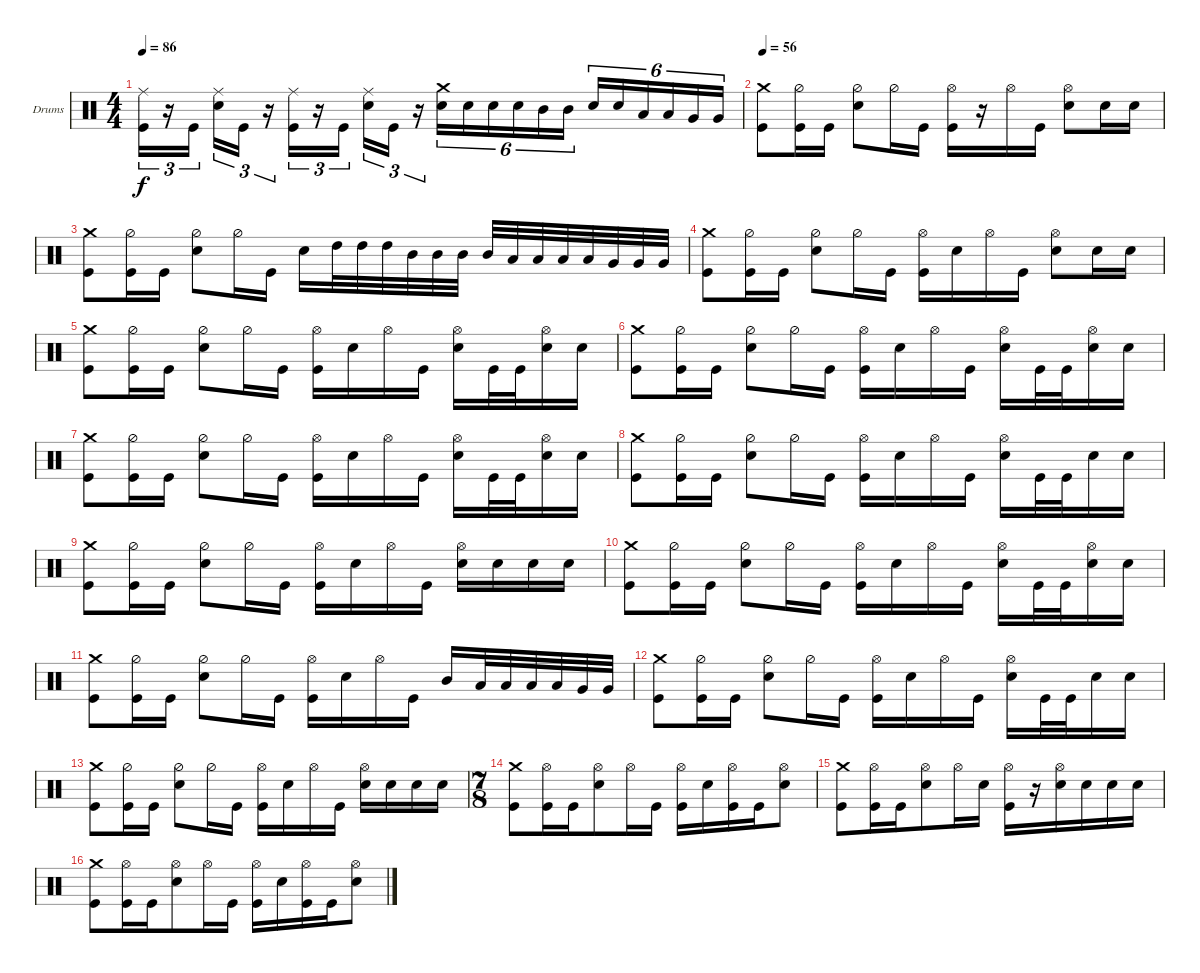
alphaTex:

\bracketExtendMode groupsimilarinstruments
\firstSystemTrackNameOrientation horizontal
\otherSystemsTrackNameOrientation horizontal
\track ("Drumkit" "Drums") {instrument percussion}
\staff {score}
\articulation defaults
\ts (4 4)
\tempo 86
\clef neutral
\ks c
("Kick (hit)" "Ride (middle)").16{tu (3 2) dy f} r.16{tu (3 2)} "Kick (hit)".16{tu (3 2)} ("Snare (hit) 2" "Ride (middle)").16{tu (3 2)} "Kick (hit)".16{tu (3 2)} r.16{tu (3 2)} ("Kick (hit)" "Ride (middle)").16{tu (3 2)} r.16{tu (3 2)} "Kick (hit)".16{tu (3 2)} ("Snare (hit) 2" "Ride (middle)").16{tu (3 2)} "Kick (hit)".16{tu (3 2)} r.16{tu (3 2)} ("Snare (hit) 2" "Crash medium (hit)").16{tu (6 4)} "Snare (hit) 2".16{tu (6 4)} "Snare (hit) 2".16{tu (6 4)} "Snare (hit) 2".16{tu (6 4)} "Mid Tom (hit)".16{tu (6 4)} "Mid Tom (hit)".16{tu (6 4)} "Snare (hit) 2".16{tu (6 4)} "Snare (hit) 2".16{tu (6 4)} "Low Tom (hit)".16{tu (6 4)} "Low Tom (hit)".16{tu (6 4)} "Very Low Tom (hit)".16{tu (6 4)} "Very Low Tom (hit)".16{tu (6 4)} |
\tempo 56
("Crash medium (hit)" "Kick (hit)").8 ("Kick (hit)" "Hi-Hat (half)").16 "Kick (hit)".16 ("Snare (hit) 2" "Hi-Hat (half)").8 "Hi-Hat (half)".16 "Kick (hit)".16 ("Kick (hit)" "Hi-Hat (open)").16 r.16 "Hi-Hat (open)".16 "Kick (hit)".16 ("Snare (hit) 2" "Hi-Hat (open)").8 "Snare (hit) 2".16 "Snare (hit) 2".16 |
("Crash medium (hit)" "Kick (hit)").8 ("Kick (hit)" "Hi-Hat (half)").16 "Kick (hit)".16 ("Snare (hit) 2" "Hi-Hat (half)").8 "Hi-Hat (half)".16 "Kick (hit)".16 "Snare (hit) 2".16 "High Tom (hit)".32 "High Tom (hit)".32 "High Tom (hit)".32 "Mid Tom (hit)".32 "Mid Tom (hit)".32 "Mid Tom (hit)".32 "Mid Tom (hit)".32 "Low Tom (hit)".32 "Low Tom (hit)".32 "Low Tom (hit)".32 "Low Tom (hit)".32 "Very Low Tom (hit)".32 "Very Low Tom (hit)".32 "Very Low Tom (hit)".32 |
("Crash medium (hit)" "Kick (hit)").8 ("Kick (hit)" "Hi-Hat (half)").16 "Kick (hit)".16 ("Snare (hit) 2" "Hi-Hat (half)").8 "Hi-Hat (half)".16 "Kick (hit)".16 ("Kick (hit)" "Hi-Hat (open)").16 "Snare (hit) 2".16 "Hi-Hat (open)".16 "Kick (hit)".16 ("Snare (hit) 2" "Hi-Hat (open)").8 "Snare (hit) 2".16 "Snare (hit) 2".16 |
("Crash medium (hit)" "Kick (hit)").8 ("Kick (hit)" "Hi-Hat (half)").16 "Kick (hit)".16 ("Snare (hit) 2" "Hi-Hat (half)").8 "Hi-Hat (half)".16 "Kick (hit)".16 ("Kick (hit)" "Hi-Hat (open)").16 "Snare (hit) 2".16 "Hi-Hat (open)".16 "Kick (hit)".16 ("Snare (hit) 2" "Hi-Hat (open)").16 "Kick (hit)".32 "Kick (hit)".32 ("Snare (hit) 2" "Hi-Hat (open)").16 "Snare (hit) 2".16 |
("Crash medium (hit)" "Kick (hit)").8 ("Kick (hit)" "Hi-Hat (half)").16 "Kick (hit)".16 ("Snare (hit) 2" "Hi-Hat (half)").8 "Hi-Hat (half)".16 "Kick (hit)".16 ("Kick (hit)" "Hi-Hat (open)").16 "Snare (hit) 2".16 "Hi-Hat (open)".16 "Kick (hit)".16 ("Snare (hit) 2" "Hi-Hat (open)").16 "Kick (hit)".32 "Kick (hit)".32 ("Snare (hit) 2" "Hi-Hat (open)").16 "Snare (hit) 2".16 |
("Crash medium (hit)" "Kick (hit)").8 ("Kick (hit)" "Hi-Hat (half)").16 "Kick (hit)".16 ("Snare (hit) 2" "Hi-Hat (half)").8 "Hi-Hat (half)".16 "Kick (hit)".16 ("Kick (hit)" "Hi-Hat (open)").16 "Snare (hit) 2".16 "Hi-Hat (open)".16 "Kick (hit)".16 ("Snare (hit) 2" "Hi-Hat (open)").16 "Kick (hit)".32 "Kick (hit)".32 ("Snare (hit) 2" "Hi-Hat (open)").16 "Snare (hit) 2".16 |
("Crash medium (hit)" "Kick (hit)").8 ("Kick (hit)" "Hi-Hat (half)").16 "Kick (hit)".16 ("Snare (hit) 2" "Hi-Hat (half)").8 "Hi-Hat (half)".16 "Kick (hit)".16 ("Kick (hit)" "Hi-Hat (open)").16 "Snare (hit) 2".16 "Hi-Hat (open)".16 "Kick (hit)".16 ("Snare (hit) 2" "Hi-Hat (open)").16 "Kick (hit)".32 "Kick (hit)".32 "Snare (hit) 2".16 "Snare (hit) 2".16 |
("Crash medium (hit)" "Kick (hit)").8 ("Kick (hit)" "Hi-Hat (half)").16 "Kick (hit)".16 ("Snare (hit) 2" "Hi-Hat (half)").8 "Hi-Hat (half)".16 "Kick (hit)".16 ("Kick (hit)" "Hi-Hat (open)").16 "Snare (hit) 2".16 "Hi-Hat (open)".16 "Kick (hit)".16 ("Snare (hit) 2" "Hi-Hat (open)").16 "Snare (hit) 2".16 "Snare (hit) 2".16 "Snare (hit) 2".16 |
("Crash medium (hit)" "Kick (hit)").8 ("Kick (hit)" "Hi-Hat (half)").16 "Kick (hit)".16 ("Snare (hit) 2" "Hi-Hat (half)").8 "Hi-Hat (half)".16 "Kick (hit)".16 ("Kick (hit)" "Hi-Hat (open)").16 "Snare (hit) 2".16 "Hi-Hat (open)".16 "Kick (hit)".16 ("Snare (hit) 2" "Hi-Hat (open)").16 "Kick (hit)".32 "Kick (hit)".32 ("Snare (hit) 2" "Hi-Hat (open)").16 "Snare (hit) 2".16 |
("Crash medium (hit)" "Kick (hit)").8 ("Kick (hit)" "Hi-Hat (half)").16 "Kick (hit)".16 ("Snare (hit) 2" "Hi-Hat (half)").8 "Hi-Hat (half)".16 "Kick (hit)".16 ("Kick (hit)" "Hi-Hat (open)").16 "Snare (hit) 2".16 "Hi-Hat (open)".16 "Kick (hit)".16 "Mid Tom (hit)".16 "Low Tom (hit)".32 "Low Tom (hit)".32 "Low Tom (hit)".32 "Low Tom (hit)".32 "Very Low Tom (hit)".32 "Very Low Tom (hit)".32 |
("Crash medium (hit)" "Kick (hit)").8 ("Kick (hit)" "Hi-Hat (half)").16 "Kick (hit)".16 ("Snare (hit) 2" "Hi-Hat (half)").8 "Hi-Hat (half)".16 "Kick (hit)".16 ("Kick (hit)" "Hi-Hat (open)").16 "Snare (hit) 2".16 "Hi-Hat (open)".16 "Kick (hit)".16 ("Snare (hit) 2" "Hi-Hat (open)").16 "Kick (hit)".32 "Kick (hit)".32 "Snare (hit) 2".16 "Snare (hit) 2".16 |
("Crash medium (hit)" "Kick (hit)").8 ("Kick (hit)" "Hi-Hat (half)").16 "Kick (hit)".16 ("Snare (hit) 2" "Hi-Hat (half)").8 "Hi-Hat (half)".16 "Kick (hit)".16 ("Kick (hit)" "Hi-Hat (open)").16 "Snare (hit) 2".16 "Hi-Hat (open)".16 "Kick (hit)".16 ("Snare (hit) 2" "Hi-Hat (open)").16 "Snare (hit) 2".16 "Snare (hit) 2".16 "Snare (hit) 2".16 |
\ts (7 8)
("Kick (hit)" "Crash medium (hit)").8 ("Kick (hit)" "Hi-Hat (open)").16 "Kick (hit)".16 ("Snare (hit) 2" "Hi-Hat (open)").8 "Hi-Hat (open)".16 "Kick (hit)".16 ("Kick (hit)" "Hi-Hat (open)").16 "Snare (hit) 2".16 ("Kick (hit)" "Hi-Hat (open)").16 "Kick (hit)".16 ("Snare (hit) 2" "Hi-Hat (open)").8 |
("Kick (hit)" "Crash medium (hit)").8 ("Kick (hit)" "Hi-Hat (open)").16 "Kick (hit)".16 ("Snare (hit) 2" "Hi-Hat (open)").8 "Hi-Hat (open)".16 "Snare (hit) 2".16 ("Kick (hit)" "Hi-Hat (open)").16 r.16 ("Hi-Hat (open)" "Snare (hit) 2").16 "Snare (hit) 2".16 "Snare (hit) 2".16 "Snare (hit) 2".16 |
("Kick (hit)" "Crash medium (hit)").8 ("Kick (hit)" "Hi-Hat (open)").16 "Kick (hit)".16 ("Snare (hit) 2" "Hi-Hat (open)").8 "Hi-Hat (open)".16 "Kick (hit)".16 ("Kick (hit)" "Hi-Hat (open)").16 "Snare (hit) 2".16 ("Kick (hit)" "Hi-Hat (open)").16 "Kick (hit)".16 ("Snare (hit) 2" "Hi-Hat (open)").8
